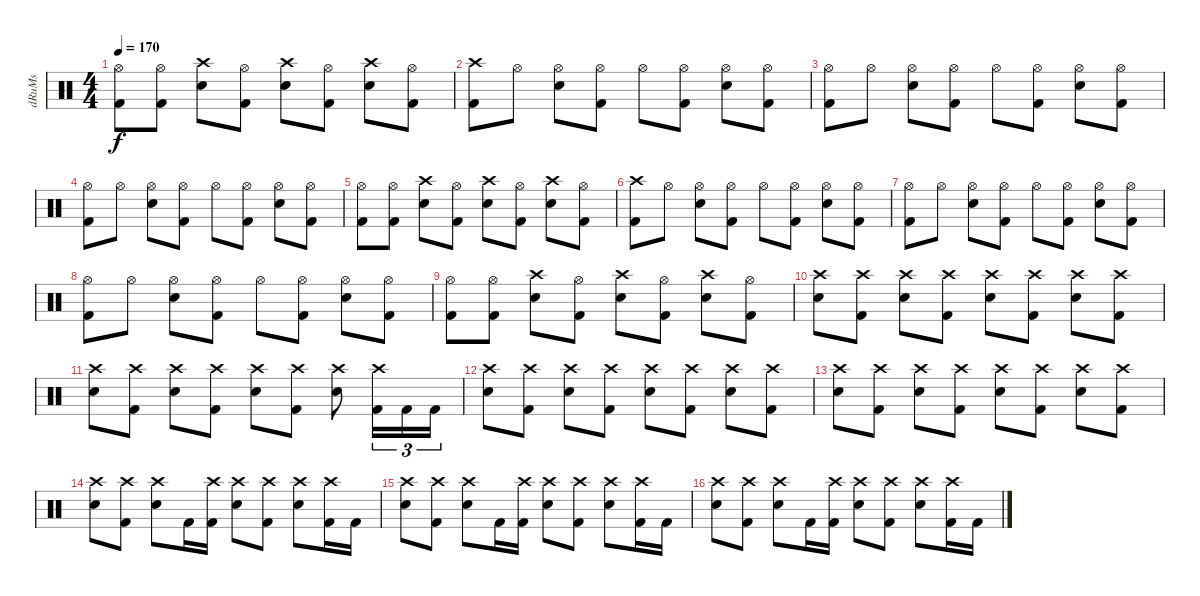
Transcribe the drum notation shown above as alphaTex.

\track ("dRuMs" "dRuMs") {instrument percussion}
\staff {score}
\articulation defaults
\ts (4 4)
\tempo 170
\clef neutral
\ks c
("Hi-Hat (open)" "Kick (hit) 2").8{dy f} ("Hi-Hat (open)" "Kick (hit) 2").8 ("Crash high (hit)" "Electric Snare (hit)").8 ("Hi-Hat (open)" "Kick (hit) 2").8 ("Crash high (hit)" "Electric Snare (hit)").8 ("Hi-Hat (open)" "Kick (hit) 2").8 ("Crash high (hit)" "Electric Snare (hit)").8 ("Hi-Hat (open)" "Kick (hit) 2").8 |
("Crash high (hit)" "Kick (hit) 2").8 "Hi-Hat (open)".8 ("Hi-Hat (open)" "Electric Snare (hit)").8 ("Hi-Hat (open)" "Kick (hit) 2").8 "Hi-Hat (open)".8 ("Hi-Hat (open)" "Kick (hit) 2").8 ("Hi-Hat (open)" "Electric Snare (hit)").8 ("Hi-Hat (open)" "Kick (hit) 2").8 |
("Hi-Hat (open)" "Kick (hit) 2").8 "Hi-Hat (open)".8 ("Hi-Hat (open)" "Electric Snare (hit)").8 ("Hi-Hat (open)" "Kick (hit) 2").8 "Hi-Hat (open)".8 ("Hi-Hat (open)" "Kick (hit) 2").8 ("Hi-Hat (open)" "Electric Snare (hit)").8 ("Hi-Hat (open)" "Kick (hit) 2").8 |
("Hi-Hat (open)" "Kick (hit) 2").8 "Hi-Hat (open)".8 ("Hi-Hat (open)" "Electric Snare (hit)").8 ("Hi-Hat (open)" "Kick (hit) 2").8 "Hi-Hat (open)".8 ("Hi-Hat (open)" "Kick (hit) 2").8 ("Hi-Hat (open)" "Electric Snare (hit)").8 ("Hi-Hat (open)" "Kick (hit) 2").8 |
("Hi-Hat (open)" "Kick (hit) 2").8 ("Hi-Hat (open)" "Kick (hit) 2").8 ("Crash high (hit)" "Electric Snare (hit)").8 ("Hi-Hat (open)" "Kick (hit) 2").8 ("Crash high (hit)" "Electric Snare (hit)").8 ("Hi-Hat (open)" "Kick (hit) 2").8 ("Crash high (hit)" "Electric Snare (hit)").8 ("Hi-Hat (open)" "Kick (hit) 2").8 |
("Crash high (hit)" "Kick (hit) 2").8 "Hi-Hat (open)".8 ("Hi-Hat (open)" "Electric Snare (hit)").8 ("Hi-Hat (open)" "Kick (hit) 2").8 "Hi-Hat (open)".8 ("Hi-Hat (open)" "Kick (hit) 2").8 ("Hi-Hat (open)" "Electric Snare (hit)").8 ("Hi-Hat (open)" "Kick (hit) 2").8 |
("Hi-Hat (open)" "Kick (hit) 2").8 "Hi-Hat (open)".8 ("Hi-Hat (open)" "Electric Snare (hit)").8 ("Hi-Hat (open)" "Kick (hit) 2").8 "Hi-Hat (open)".8 ("Hi-Hat (open)" "Kick (hit) 2").8 ("Hi-Hat (open)" "Electric Snare (hit)").8 ("Hi-Hat (open)" "Kick (hit) 2").8 |
("Hi-Hat (open)" "Kick (hit) 2").8 "Hi-Hat (open)".8 ("Hi-Hat (open)" "Electric Snare (hit)").8 ("Hi-Hat (open)" "Kick (hit) 2").8 "Hi-Hat (open)".8 ("Hi-Hat (open)" "Kick (hit) 2").8 ("Hi-Hat (open)" "Electric Snare (hit)").8 ("Hi-Hat (open)" "Kick (hit) 2").8 |
("Hi-Hat (open)" "Kick (hit) 2").8 ("Hi-Hat (open)" "Kick (hit) 2").8 ("Crash high (hit)" "Electric Snare (hit)").8 ("Hi-Hat (open)" "Kick (hit) 2").8 ("Crash high (hit)" "Electric Snare (hit)").8 ("Hi-Hat (open)" "Kick (hit) 2").8 ("Crash high (hit)" "Electric Snare (hit)").8 ("Hi-Hat (open)" "Kick (hit) 2").8 |
("Crash high (hit)" "Electric Snare (hit)").8 ("Crash high (hit)" "Kick (hit) 2").8 ("Crash high (hit)" "Electric Snare (hit)").8 ("Crash high (hit)" "Kick (hit) 2").8 ("Crash high (hit)" "Electric Snare (hit)").8 ("Crash high (hit)" "Kick (hit) 2").8 ("Crash high (hit)" "Electric Snare (hit)").8 ("Crash high (hit)" "Kick (hit) 2").8 |
("Crash high (hit)" "Electric Snare (hit)").8 ("Crash high (hit)" "Kick (hit) 2").8 ("Crash high (hit)" "Electric Snare (hit)").8 ("Crash high (hit)" "Kick (hit) 2").8 ("Crash high (hit)" "Electric Snare (hit)").8 ("Crash high (hit)" "Kick (hit) 2").8 ("Crash high (hit)" "Electric Snare (hit)").8 ("Crash high (hit)" "Kick (hit) 2").16{tu (3 2)} "Kick (hit) 2".16{tu (3 2)} "Kick (hit) 2".16{tu (3 2)} |
("Crash high (hit)" "Electric Snare (hit)").8 ("Crash high (hit)" "Kick (hit) 2").8 ("Crash high (hit)" "Electric Snare (hit)").8 ("Crash high (hit)" "Kick (hit) 2").8 ("Crash high (hit)" "Electric Snare (hit)").8 ("Crash high (hit)" "Kick (hit) 2").8 ("Crash high (hit)" "Electric Snare (hit)").8 ("Crash high (hit)" "Kick (hit) 2").8 |
("Crash high (hit)" "Electric Snare (hit)").8 ("Crash high (hit)" "Kick (hit) 2").8 ("Crash high (hit)" "Electric Snare (hit)").8 ("Crash high (hit)" "Kick (hit) 2").8 ("Crash high (hit)" "Electric Snare (hit)").8 ("Crash high (hit)" "Kick (hit) 2").8 ("Crash high (hit)" "Electric Snare (hit)").8 ("Crash high (hit)" "Kick (hit) 2").8 |
("Crash high (hit)" "Electric Snare (hit)").8 ("Crash high (hit)" "Kick (hit) 2").8 ("Crash high (hit)" "Electric Snare (hit)").8 "Kick (hit) 2".16 ("Crash high (hit)" "Kick (hit) 2").16 ("Crash high (hit)" "Electric Snare (hit)").8 ("Crash high (hit)" "Kick (hit) 2").8 ("Crash high (hit)" "Electric Snare (hit)").8 ("Crash high (hit)" "Kick (hit) 2").16 "Kick (hit) 2".16 |
("Crash high (hit)" "Electric Snare (hit)").8 ("Crash high (hit)" "Kick (hit) 2").8 ("Crash high (hit)" "Electric Snare (hit)").8 "Kick (hit) 2".16 ("Crash high (hit)" "Kick (hit) 2").16 ("Crash high (hit)" "Electric Snare (hit)").8 ("Crash high (hit)" "Kick (hit) 2").8 ("Crash high (hit)" "Electric Snare (hit)").8 ("Crash high (hit)" "Kick (hit) 2").16 "Kick (hit) 2".16 |
("Crash high (hit)" "Electric Snare (hit)").8 ("Crash high (hit)" "Kick (hit) 2").8 ("Crash high (hit)" "Electric Snare (hit)").8 "Kick (hit) 2".16 ("Crash high (hit)" "Kick (hit) 2").16 ("Crash high (hit)" "Electric Snare (hit)").8 ("Crash high (hit)" "Kick (hit) 2").8 ("Crash high (hit)" "Electric Snare (hit)").8 ("Crash high (hit)" "Kick (hit) 2").16 "Kick (hit) 2".16
